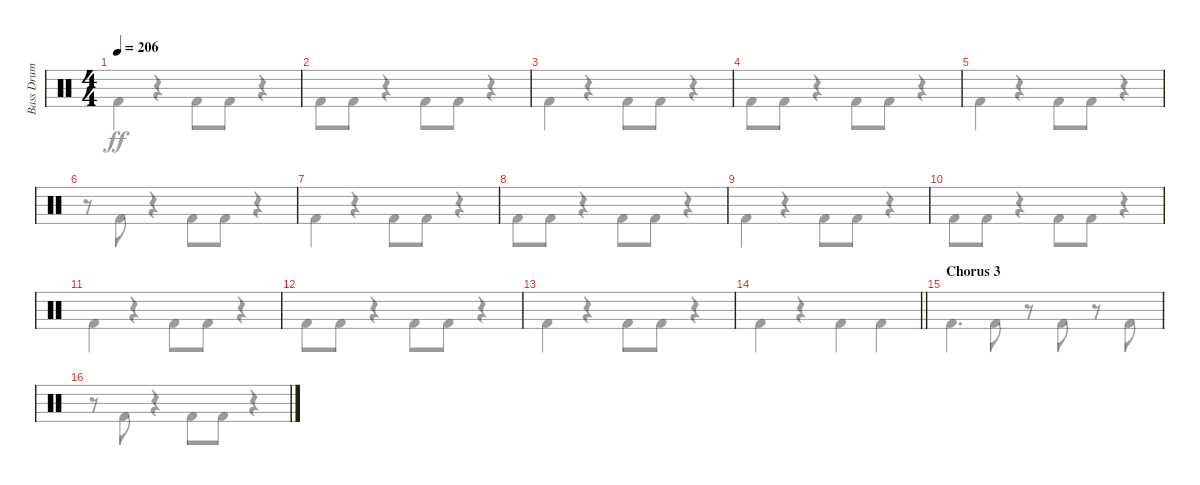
\track ("Bass Drum" "Bass Drum") {instrument percussion}
\staff {score}
\articulation defaults
\voice
\ts (4 4)
\tempo 206
\clef neutral
\ks c
|
|
|
|
|
|
|
|
|
|
|
|
|
\barLineRight lightlight
|
\section ("" "Chorus 3")
|
\voice
\clef neutral
\ks c "Kick (hit) 2".4{dy ff}
r.4 "Kick (hit) 2".8 "Kick (hit) 2".8 r.4 |
"Kick (hit) 2".8 "Kick (hit) 2".8 r.4 "Kick (hit) 2".8 "Kick (hit) 2".8 r.4 |
"Kick (hit) 2".4 r.4 "Kick (hit) 2".8 "Kick (hit) 2".8 r.4 |
"Kick (hit) 2".8 "Kick (hit) 2".8 r.4 "Kick (hit) 2".8 "Kick (hit) 2".8 r.4 |
"Kick (hit) 2".4 r.4 "Kick (hit) 2".8 "Kick (hit) 2".8 r.4 |
r.8 "Kick (hit) 2".8 r.4 "Kick (hit) 2".8 "Kick (hit) 2".8 r.4 |
"Kick (hit) 2".4 r.4 "Kick (hit) 2".8 "Kick (hit) 2".8 r.4 |
"Kick (hit) 2".8 "Kick (hit) 2".8 r.4 "Kick (hit) 2".8 "Kick (hit) 2".8 r.4 |
"Kick (hit) 2".4 r.4 "Kick (hit) 2".8 "Kick (hit) 2".8 r.4 |
"Kick (hit) 2".8 "Kick (hit) 2".8 r.4 "Kick (hit) 2".8 "Kick (hit) 2".8 r.4 |
"Kick (hit) 2".4 r.4 "Kick (hit) 2".8 "Kick (hit) 2".8 r.4 |
"Kick (hit) 2".8 "Kick (hit) 2".8 r.4 "Kick (hit) 2".8 "Kick (hit) 2".8 r.4 |
"Kick (hit) 2".4 r.4 "Kick (hit) 2".8 "Kick (hit) 2".8 r.4 |
\barLineRight lightlight "Kick (hit) 2".4
r.4 "Kick (hit) 2".4 "Kick (hit) 2".4 |
"Kick (hit) 2".4{d} "Kick (hit) 2".8 r.8 "Kick (hit) 2".8 r.8 "Kick (hit) 2".8 |
r.8 "Kick (hit) 2".8 r.4 "Kick (hit) 2".8 "Kick (hit) 2".8 r.4
